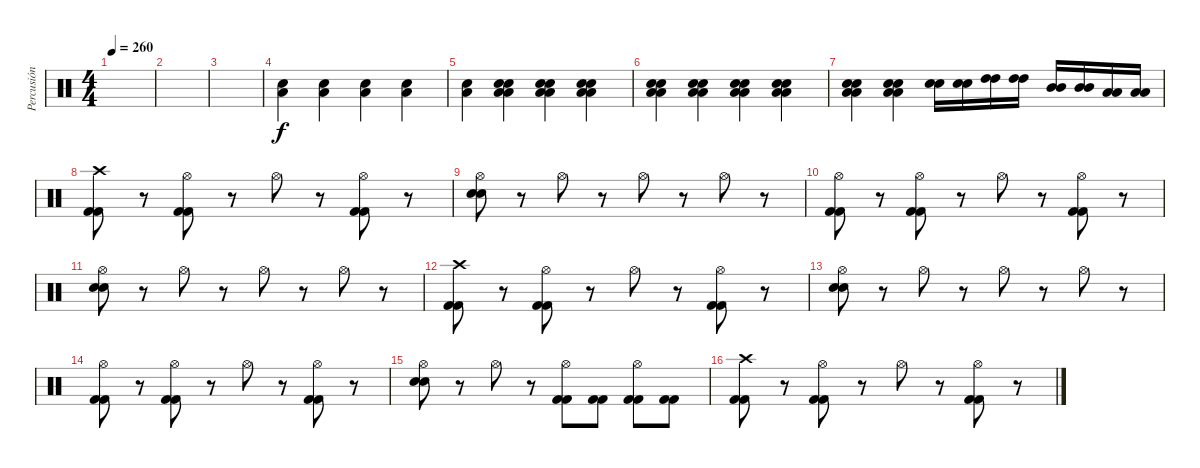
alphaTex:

\track ("Percusión" "Percusión") {instrument percussion}
\staff {score}
\articulation defaults
\ts (4 4)
\tempo 260
\clef neutral
\ks c
|
|
|
("Low Floor Tom (hit)" "Electric Snare (hit)").4 ("Low Floor Tom (hit)" "Electric Snare (hit)").4 ("Low Floor Tom (hit)" "Electric Snare (hit)").4 ("Low Floor Tom (hit)" "Electric Snare (hit)").4 |
("Low Floor Tom (hit)" "Electric Snare (hit)").4 ("Low Floor Tom (hit)" "Low Floor Tom (hit)" "Electric Snare (hit)" "Electric Snare (hit)").4 ("Low Floor Tom (hit)" "Low Floor Tom (hit)" "Electric Snare (hit)" "Electric Snare (hit)").4 ("Low Floor Tom (hit)" "Low Floor Tom (hit)" "Electric Snare (hit)" "Electric Snare (hit)").4 |
("Low Floor Tom (hit)" "Low Floor Tom (hit)" "Electric Snare (hit)" "Electric Snare (hit)").4 ("Low Floor Tom (hit)" "Low Floor Tom (hit)" "Electric Snare (hit)" "Electric Snare (hit)").4 ("Low Floor Tom (hit)" "Low Floor Tom (hit)" "Electric Snare (hit)" "Electric Snare (hit)").4 ("Low Floor Tom (hit)" "Low Floor Tom (hit)" "Electric Snare (hit)" "Electric Snare (hit)").4 |
("Low Floor Tom (hit)" "Low Floor Tom (hit)" "Electric Snare (hit)" "Electric Snare (hit)").4 ("Low Floor Tom (hit)" "Low Floor Tom (hit)" "Electric Snare (hit)" "Electric Snare (hit)").4 ("Electric Snare (hit)" "Electric Snare (hit)").16 ("Electric Snare (hit)" "Electric Snare (hit)").16 ("High Tom (hit)" "High Tom (hit)").16 ("High Tom (hit)" "High Tom (hit)").16 ("Mid Tom (hit)" "Mid Tom (hit)").16 ("Mid Tom (hit)" "Mid Tom (hit)").16 ("Low Floor Tom (hit)" "Low Floor Tom (hit)").16 ("Low Floor Tom (hit)" "Low Floor Tom (hit)").16 |
("Kick (hit) 2" "Kick (hit) 2" "Crash high (hit)").8 r.8 ("Kick (hit) 2" "Kick (hit) 2" "Hi-Hat (open)").8 r.8 "Hi-Hat (open)".8 r.8 ("Kick (hit) 2" "Kick (hit) 2" "Hi-Hat (open)").8 r.8 |
("Electric Snare (hit)" "Electric Snare (hit)" "Hi-Hat (open)").8 r.8 "Hi-Hat (open)".8 r.8 "Hi-Hat (open)".8 r.8 "Hi-Hat (open)".8 r.8 |
("Kick (hit) 2" "Kick (hit) 2" "Hi-Hat (open)").8 r.8 ("Kick (hit) 2" "Kick (hit) 2" "Hi-Hat (open)").8 r.8 "Hi-Hat (open)".8 r.8 ("Kick (hit) 2" "Kick (hit) 2" "Hi-Hat (open)").8 r.8 |
("Electric Snare (hit)" "Electric Snare (hit)" "Hi-Hat (open)").8 r.8 "Hi-Hat (open)".8 r.8 "Hi-Hat (open)".8 r.8 "Hi-Hat (open)".8 r.8 |
("Kick (hit) 2" "Kick (hit) 2" "Crash high (hit)").8 r.8 ("Kick (hit) 2" "Kick (hit) 2" "Hi-Hat (open)").8 r.8 "Hi-Hat (open)".8 r.8 ("Kick (hit) 2" "Kick (hit) 2" "Hi-Hat (open)").8 r.8 |
("Electric Snare (hit)" "Electric Snare (hit)" "Hi-Hat (open)").8 r.8 "Hi-Hat (open)".8 r.8 "Hi-Hat (open)".8 r.8 "Hi-Hat (open)".8 r.8 |
("Kick (hit) 2" "Kick (hit) 2" "Hi-Hat (open)").8 r.8 ("Kick (hit) 2" "Kick (hit) 2" "Hi-Hat (open)").8 r.8 "Hi-Hat (open)".8 r.8 ("Kick (hit) 2" "Kick (hit) 2" "Hi-Hat (open)").8 r.8 |
("Electric Snare (hit)" "Electric Snare (hit)" "Hi-Hat (open)").8 r.8 "Hi-Hat (open)".8 r.8 ("Kick (hit) 2" "Kick (hit) 2" "Hi-Hat (open)").8 ("Kick (hit) 2" "Kick (hit) 2").8 ("Kick (hit) 2" "Kick (hit) 2" "Hi-Hat (open)").8 ("Kick (hit) 2" "Kick (hit) 2").8 |
("Kick (hit) 2" "Kick (hit) 2" "Crash high (hit)").8 r.8 ("Kick (hit) 2" "Kick (hit) 2" "Hi-Hat (open)").8 r.8 "Hi-Hat (open)".8 r.8 ("Kick (hit) 2" "Kick (hit) 2" "Hi-Hat (open)").8 r.8
